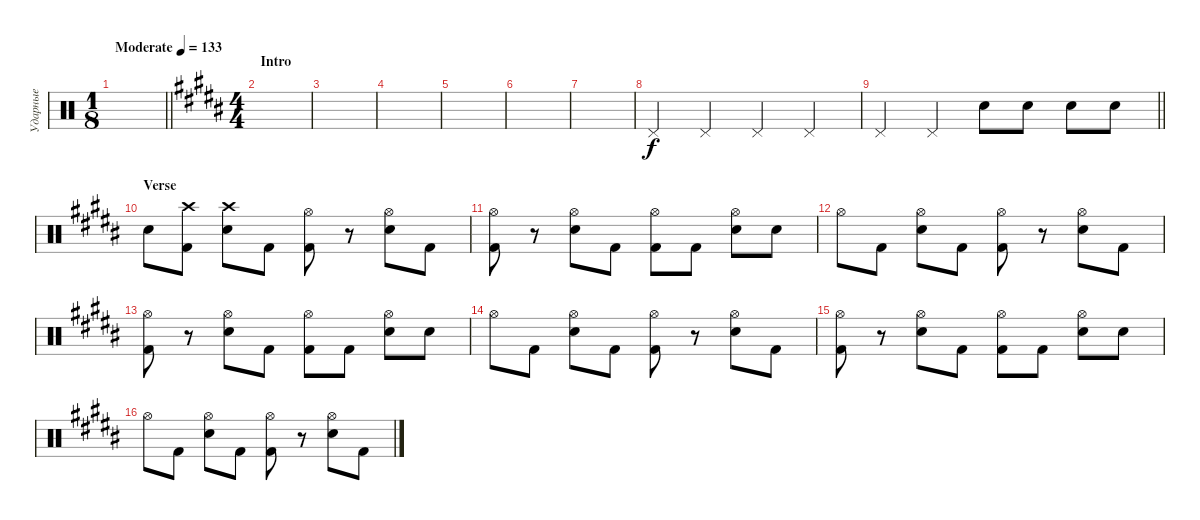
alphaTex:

\track ("Ударные" "Ударные") {instrument percussion}
\staff {score}
\articulation defaults
\ts (1 8)
\tempo (133 "Moderate")
\clef neutral
\barLineRight lightlight
\ks c
|
\ts (4 4)
\section ("" "Intro")
\ks b
|
|
|
|
|
|
"Pedal Hi-Hat (hit)".4 "Pedal Hi-Hat (hit)".4 "Pedal Hi-Hat (hit)".4 "Pedal Hi-Hat (hit)".4 |
\barLineRight lightlight "Pedal Hi-Hat (hit)".4 "Pedal Hi-Hat (hit)".4 "Electric Snare (hit)".8 "Electric Snare (hit)".8 "Electric Snare (hit)".8 "Electric Snare (hit)".8
|
\section ("" "Verse")
"Electric Snare (hit)".8 ("Crash high (hit)" "Kick (hit) 2").8 ("Crash high (hit)" "Electric Snare (hit)").8 "Kick (hit) 2".8 ("Hi-Hat (open)" "Kick (hit) 2").8 r.8 ("Hi-Hat (open)" "Electric Snare (hit)").8 "Kick (hit) 2".8 |
("Hi-Hat (open)" "Kick (hit) 2").8 r.8 ("Hi-Hat (open)" "Electric Snare (hit)").8 "Kick (hit) 2".8 ("Hi-Hat (open)" "Kick (hit) 2").8 "Kick (hit) 2".8 ("Hi-Hat (open)" "Electric Snare (hit)").8 "Electric Snare (hit)".8 |
"Hi-Hat (open)".8 "Kick (hit) 2".8 ("Hi-Hat (open)" "Electric Snare (hit)").8 "Kick (hit) 2".8 ("Hi-Hat (open)" "Kick (hit) 2").8 r.8 ("Hi-Hat (open)" "Electric Snare (hit)").8 "Kick (hit) 2".8 |
("Hi-Hat (open)" "Kick (hit) 2").8 r.8 ("Hi-Hat (open)" "Electric Snare (hit)").8 "Kick (hit) 2".8 ("Hi-Hat (open)" "Kick (hit) 2").8 "Kick (hit) 2".8 ("Hi-Hat (open)" "Electric Snare (hit)").8 "Electric Snare (hit)".8 |
"Hi-Hat (open)".8 "Kick (hit) 2".8 ("Hi-Hat (open)" "Electric Snare (hit)").8 "Kick (hit) 2".8 ("Hi-Hat (open)" "Kick (hit) 2").8 r.8 ("Hi-Hat (open)" "Electric Snare (hit)").8 "Kick (hit) 2".8 |
("Hi-Hat (open)" "Kick (hit) 2").8 r.8 ("Hi-Hat (open)" "Electric Snare (hit)").8 "Kick (hit) 2".8 ("Hi-Hat (open)" "Kick (hit) 2").8 "Kick (hit) 2".8 ("Hi-Hat (open)" "Electric Snare (hit)").8 "Electric Snare (hit)".8 |
"Hi-Hat (open)".8 "Kick (hit) 2".8 ("Hi-Hat (open)" "Electric Snare (hit)").8 "Kick (hit) 2".8 ("Hi-Hat (open)" "Kick (hit) 2").8 r.8 ("Hi-Hat (open)" "Electric Snare (hit)").8 "Kick (hit) 2".8
